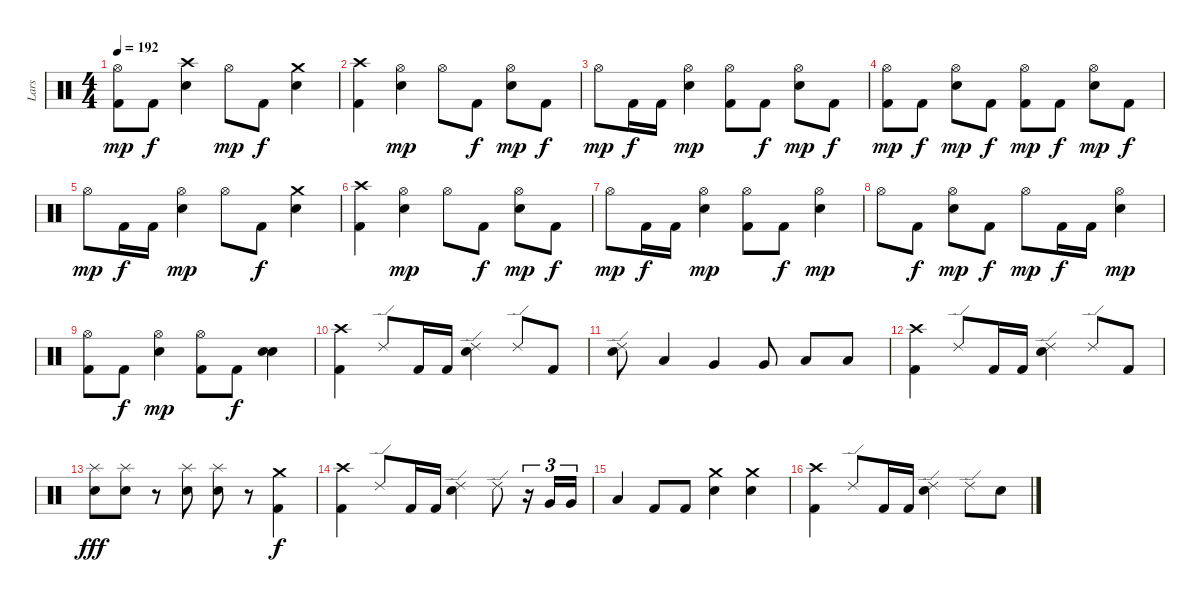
\track ("Lars" "Lars") {instrument percussion}
\staff {score}
\articulation defaults
\ts (4 4)
\tempo 192
\clef neutral
\ks c
("Hi-Hat (open)" "Kick (hit) 2").8{dy mp} "Kick (hit) 2".8{dy f} ("Crash high (hit)" "Snare (hit) 2").4 "Hi-Hat (open)".8{dy mp} "Kick (hit) 2".8{dy f} ("Crash medium (hit)" "Snare (hit) 2").4 |
("Crash high (hit)" "Kick (hit) 2").4 ("Hi-Hat (open)" "Snare (hit) 2").4{dy mp} "Hi-Hat (open)".8 "Kick (hit) 2".8{dy f} ("Hi-Hat (open)" "Snare (hit) 2").8{dy mp} "Kick (hit) 2".8{dy f} |
"Hi-Hat (open)".8{dy mp} "Kick (hit) 2".16{dy f} "Kick (hit) 2".16 ("Hi-Hat (open)" "Snare (hit) 2").4{dy mp} ("Hi-Hat (open)" "Kick (hit) 2").8 "Kick (hit) 2".8{dy f} ("Hi-Hat (open)" "Snare (hit) 2").8{dy mp} "Kick (hit) 2".8{dy f} |
("Hi-Hat (open)" "Kick (hit) 2").8{dy mp} "Kick (hit) 2".8{dy f} ("Hi-Hat (open)" "Snare (hit) 2").8{dy mp} "Kick (hit) 2".8{dy f} ("Hi-Hat (open)" "Kick (hit) 2").8{dy mp} "Kick (hit) 2".8{dy f} ("Hi-Hat (open)" "Snare (hit) 2").8{dy mp} "Kick (hit) 2".8{dy f} |
"Hi-Hat (open)".8{dy mp} "Kick (hit) 2".16{dy f} "Kick (hit) 2".16 ("Hi-Hat (open)" "Snare (hit) 2").4{dy mp} "Hi-Hat (open)".8 "Kick (hit) 2".8{dy f} ("Crash medium (hit)" "Snare (hit) 2").4 |
("Crash high (hit)" "Kick (hit) 2").4 ("Hi-Hat (open)" "Snare (hit) 2").4{dy mp} "Hi-Hat (open)".8 "Kick (hit) 2".8{dy f} ("Hi-Hat (open)" "Snare (hit) 2").8{dy mp} "Kick (hit) 2".8{dy f} |
"Hi-Hat (open)".8{dy mp} "Kick (hit) 2".16{dy f} "Kick (hit) 2".16 ("Hi-Hat (open)" "Snare (hit) 2").4{dy mp} ("Hi-Hat (open)" "Kick (hit) 2").8 "Kick (hit) 2".8{dy f} ("Hi-Hat (open)" "Snare (hit) 2").4{dy mp} |
"Hi-Hat (open)".8 "Kick (hit) 2".8{dy f} ("Hi-Hat (open)" "Snare (hit) 2").8{dy mp} "Kick (hit) 2".8{dy f} "Hi-Hat (open)".8{dy mp} "Kick (hit) 2".16{dy f} "Kick (hit) 2".16 ("Hi-Hat (open)" "Snare (hit) 2").4{dy mp} |
("Hi-Hat (open)" "Kick (hit) 2").8 "Kick (hit) 2".8{dy f} ("Hi-Hat (open)" "Snare (hit) 2").4{dy mp} ("Hi-Hat (open)" "Kick (hit) 2").8 "Kick (hit) 2".8{dy f} ("Snare (hit) 2" "Snare (hit) 2").4 |
("Crash high (hit)" "Kick (hit) 2").4 "Ride (edge) 2".8 "Kick (hit) 2".16 "Kick (hit) 2".16 ("Ride (edge) 2" "Snare (hit) 2").4 "Ride (edge) 2".8 "Kick (hit) 2".8 |
("Ride (edge) 2" "Snare (hit) 2").8 "Low Tom (hit)".4 "Very Low Tom (hit)".4 "Very Low Tom (hit)".8 "Low Floor Tom (hit)".8 "Low Floor Tom (hit)".8 |
("Crash high (hit)" "Kick (hit) 2").4 "Ride (edge) 2".8 "Kick (hit) 2".16 "Kick (hit) 2".16 ("Ride (edge) 2" "Snare (hit) 2").4 "Ride (edge) 2".8 "Kick (hit) 2".8 |
("Splash (hit)" "Snare (hit) 2").8{dy fff} ("Splash (hit)" "Snare (hit) 2").8 r.8 ("Splash (hit)" "Snare (hit) 2").8 ("Splash (hit)" "Snare (hit) 2").8 r.8 ("Crash medium (hit)" "Kick (hit) 2").4{dy f} |
("Crash high (hit)" "Kick (hit) 2").4 "Ride (edge) 2".8 "Kick (hit) 2".16 "Kick (hit) 2".16 ("Ride (edge) 2" "Snare (hit) 2").4 "Ride (edge) 2".8 r.16{tu (3 2)} "Very Low Tom (hit)".16{tu (3 2)} "Very Low Tom (hit)".16{tu (3 2)} |
"Low Floor Tom (hit)".4 "Kick (hit) 2".8 "Kick (hit) 2".8 ("Crash medium (hit)" "Snare (hit) 2").4 ("Crash medium (hit)" "Snare (hit) 2").4 |
("Crash high (hit)" "Kick (hit) 2").4 "Ride (edge) 2".8 "Kick (hit) 2".16 "Kick (hit) 2".16 ("Ride (edge) 2" "Snare (hit) 2").4 "Ride (edge) 2".8 "Snare (hit) 2".8
